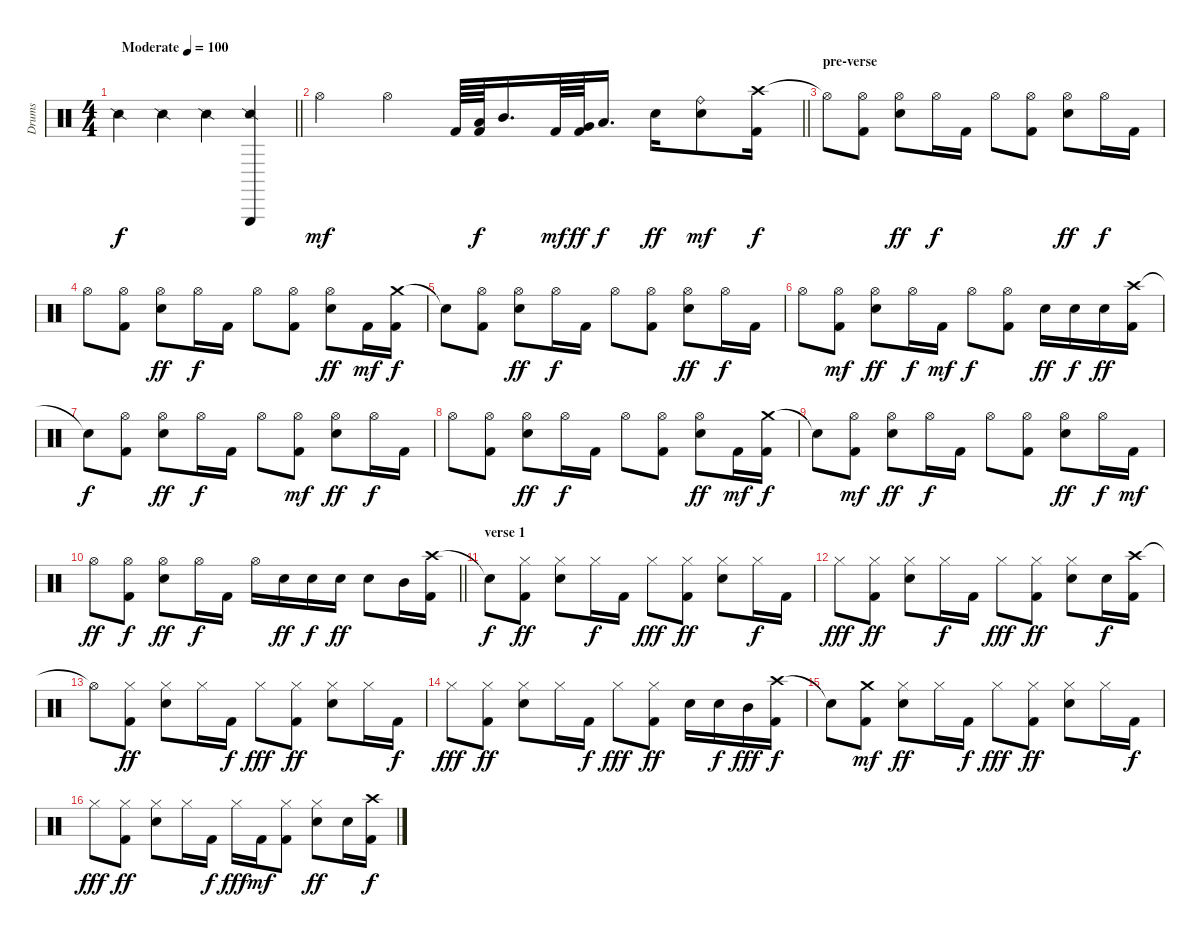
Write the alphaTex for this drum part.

\track ("Drums" "Drums") {instrument percussion}
\staff {score}
\articulation defaults
\ts (4 4)
\tempo (100 "Moderate")
\clef neutral
\barLineRight lightlight
\ks c "Snare (side stick) 2".4{dy f} "Snare (side stick) 2".4 "Snare (side stick) 2".4
("Triangle (hit)" "Snare (side stick) 2").4 |
\section ("" "")
\barLineRight lightlight "Hi-Hat (open)".4{dy mf} "Hi-Hat (open)".4 "Kick (hit) 2".64
("Low Tom (hit)" "Kick (hit) 2").64{dy f} "Mid Tom (hit)".16{d} "Kick (hit) 2".64{dy mf} ("Very Low Tom (hit)" "Kick (hit) 2").64{dy ff} "Low Tom (hit)".16{d dy f} "Snare (hit) 2".16{dy ff} ("Ride (bell)" "Snare (hit) 2").8{dy mf} ("Crash high (hit)" "Kick (hit) 2").16{dy f} |
\section ("" "pre-verse")
"Hi-Hat (open)"{t}.8 ("Hi-Hat (open)" "Kick (hit) 2").8 ("Hi-Hat (open)" "Snare (hit) 2").8{dy ff} "Hi-Hat (open)".16{dy f} "Kick (hit) 2".16 "Hi-Hat (open)".8 ("Hi-Hat (open)" "Kick (hit) 2").8 ("Hi-Hat (open)" "Snare (hit) 2").8{dy ff} "Hi-Hat (open)".16{dy f} "Kick (hit) 2".16 |
"Hi-Hat (open)".8 ("Hi-Hat (open)" "Kick (hit) 2").8 ("Hi-Hat (open)" "Snare (hit) 2").8{dy ff} "Hi-Hat (open)".16{dy f} "Kick (hit) 2".16 "Hi-Hat (open)".8 ("Hi-Hat (open)" "Kick (hit) 2").8 ("Hi-Hat (open)" "Snare (hit) 2").8{dy ff} "Kick (hit) 2".16{dy mf} ("Crash medium (hit)" "Kick (hit) 2").16{dy f} |
"Snare (hit)"{t}.8 ("Hi-Hat (open)" "Kick (hit) 2").8 ("Hi-Hat (open)" "Snare (hit) 2").8{dy ff} "Hi-Hat (open)".16{dy f} "Kick (hit) 2".16 "Hi-Hat (open)".8 ("Hi-Hat (open)" "Kick (hit) 2").8 ("Hi-Hat (open)" "Snare (hit) 2").8{dy ff} "Hi-Hat (open)".16{dy f} "Kick (hit) 2".16 |
"Hi-Hat (open)".8 ("Hi-Hat (open)" "Kick (hit) 2").8{dy mf} ("Hi-Hat (open)" "Snare (hit) 2").8{dy ff} "Hi-Hat (open)".16{dy f} "Kick (hit) 2".16{dy mf} "Hi-Hat (open)".8{dy f} ("Hi-Hat (open)" "Kick (hit) 2").8 "Snare (hit) 2".16{dy ff} "Snare (hit) 2".16{dy f} "Snare (hit) 2".16{dy ff} ("Crash high (hit)" "Kick (hit) 2").16 |
"Snare (hit)"{t}.8{dy f} ("Hi-Hat (open)" "Kick (hit) 2").8 ("Hi-Hat (open)" "Snare (hit) 2").8{dy ff} "Hi-Hat (open)".16{dy f} "Kick (hit) 2".16 "Hi-Hat (open)".8 ("Hi-Hat (open)" "Kick (hit) 2").8{dy mf} ("Hi-Hat (open)" "Snare (hit) 2").8{dy ff} "Hi-Hat (open)".16{dy f} "Kick (hit) 2".16 |
"Hi-Hat (open)".8 ("Hi-Hat (open)" "Kick (hit) 2").8 ("Hi-Hat (open)" "Snare (hit) 2").8{dy ff} "Hi-Hat (open)".16{dy f} "Kick (hit) 2".16 "Hi-Hat (open)".8 ("Hi-Hat (open)" "Kick (hit) 2").8 ("Hi-Hat (open)" "Snare (hit) 2").8{dy ff} "Kick (hit) 2".16{dy mf} ("Crash medium (hit)" "Kick (hit) 2").16{dy f} |
"Snare (hit)"{t}.8 ("Hi-Hat (open)" "Kick (hit) 2").8{dy mf} ("Hi-Hat (open)" "Snare (hit) 2").8{dy ff} "Hi-Hat (open)".16{dy f} "Kick (hit) 2".16 "Hi-Hat (open)".8 ("Hi-Hat (open)" "Kick (hit) 2").8 ("Hi-Hat (open)" "Snare (hit) 2").8{dy ff} "Hi-Hat (open)".16{dy f} "Kick (hit) 2".16{dy mf} |
\barLineRight lightlight "Hi-Hat (open)".8{dy ff}
("Hi-Hat (open)" "Kick (hit) 2").8{dy f} ("Hi-Hat (open)" "Snare (hit) 2").8{dy ff} "Hi-Hat (open)".16{dy f} "Kick (hit) 2".16 "Hi-Hat (open)".16 "Snare (hit) 2".16{dy ff} "Snare (hit) 2".16{dy f} "Snare (hit) 2".16{dy ff} "Snare (hit) 2".8 "Mid Tom (hit)".16 ("Crash high (hit)" "Kick (hit) 2").16 |
\section ("" "verse 1")
"Snare (hit)"{t}.8{dy f} ("Hi-Hat (closed)" "Kick (hit) 2").8{dy ff} ("Hi-Hat (closed)" "Snare (hit) 2").8 "Hi-Hat (closed)".16{dy f} "Kick (hit) 2".16 "Hi-Hat (closed)".8{dy fff} ("Hi-Hat (closed)" "Kick (hit) 2").8{dy ff} ("Hi-Hat (closed)" "Snare (hit) 2").8 "Hi-Hat (closed)".16{dy f} "Kick (hit) 2".16 |
"Hi-Hat (closed)".8{dy fff} ("Hi-Hat (closed)" "Kick (hit) 2").8{dy ff} ("Hi-Hat (closed)" "Snare (hit) 2").8 "Hi-Hat (closed)".16{dy f} "Kick (hit) 2".16 "Hi-Hat (closed)".8{dy fff} ("Hi-Hat (closed)" "Kick (hit) 2").8{dy ff} ("Hi-Hat (closed)" "Snare (hit) 2").8 "Snare (hit) 2".16{dy f} ("Crash high (hit)" "Kick (hit) 2").16 |
"Hi-Hat (open)"{t}.8 ("Hi-Hat (closed)" "Kick (hit) 2").8{dy ff} ("Hi-Hat (closed)" "Snare (hit) 2").8 "Hi-Hat (closed)".16 "Kick (hit) 2".16{dy f} "Hi-Hat (closed)".8{dy fff} ("Hi-Hat (closed)" "Kick (hit) 2").8{dy ff} ("Hi-Hat (closed)" "Snare (hit) 2").8 "Hi-Hat (closed)".16 "Kick (hit) 2".16{dy f} |
"Hi-Hat (closed)".8{dy fff} ("Hi-Hat (closed)" "Kick (hit) 2").8{dy ff} ("Hi-Hat (closed)" "Snare (hit) 2").8 "Hi-Hat (closed)".16 "Kick (hit) 2".16{dy f} "Hi-Hat (closed)".8{dy fff} ("Hi-Hat (closed)" "Kick (hit) 2").8{dy ff} "Snare (hit) 2".16 "Snare (hit) 2".16{dy f} "Mid Tom (hit)".16{dy fff} ("Crash high (hit)" "Kick (hit) 2").16{dy f} |
"Snare (hit)"{t}.8 ("Crash medium (hit)" "Kick (hit) 2").8{dy mf} ("Hi-Hat (closed)" "Snare (hit) 2").8{dy ff} "Hi-Hat (closed)".16 "Kick (hit) 2".16{dy f} "Hi-Hat (closed)".8{dy fff} ("Hi-Hat (closed)" "Kick (hit) 2").8{dy ff} ("Hi-Hat (closed)" "Snare (hit) 2").8 "Hi-Hat (closed)".16 "Kick (hit) 2".16{dy f} |
"Hi-Hat (closed)".8{dy fff} ("Hi-Hat (closed)" "Kick (hit) 2").8{dy ff} ("Hi-Hat (closed)" "Snare (hit) 2").8 "Hi-Hat (closed)".16 "Kick (hit) 2".16{dy f} "Hi-Hat (closed)".16{dy fff} "Kick (hit) 2".16{dy mf} ("Hi-Hat (closed)" "Kick (hit) 2").8 ("Hi-Hat (closed)" "Snare (hit) 2").8{dy ff} "Snare (hit) 2".16 ("Crash high (hit)" "Kick (hit) 2").16{dy f}
